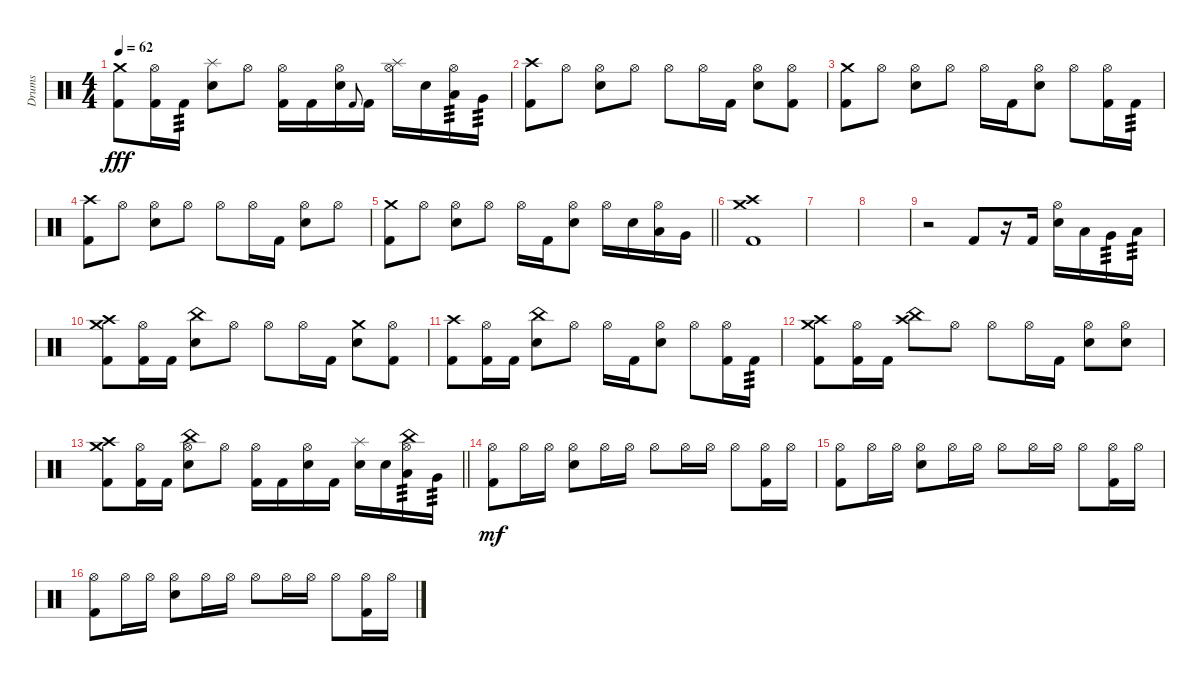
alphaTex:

\track ("Drums" "Drums") {instrument percussion}
\staff {score}
\articulation defaults
\ts (4 4)
\tempo 62
\clef neutral
\ks c
("Kick (hit) 2" "Crash medium (hit)").8{dy fff} ("Kick (hit) 2" "Hi-Hat (open)").16 "Kick (hit) 2".16{tp 3} ("Electric Snare (hit)" "Splash (hit)").8 "Hi-Hat (open)".8 ("Kick (hit) 2" "Hi-Hat (open)").16 "Kick (hit) 2".16 ("Electric Snare (hit)" "Hi-Hat (open)").16 "Kick (hit) 2".8{gr onbeat} "Kick (hit) 2".16 ("Hi-Hat (open)" "Splash (hit)").16 "Electric Snare (hit)".16 ("Low Tom (hit)" "Hi-Hat (open)").16{tp 3} "Very Low Tom (hit)".16{tp 3} |
("Kick (hit) 2" "Crash high (hit)").8 "Hi-Hat (open)".8 ("Electric Snare (hit)" "Hi-Hat (open)").8 "Hi-Hat (open)".8 "Hi-Hat (open)".8 "Hi-Hat (open)".16 "Kick (hit) 2".16 ("Electric Snare (hit)" "Hi-Hat (open)").8 ("Kick (hit) 2" "Hi-Hat (open)").8 |
("Kick (hit) 2" "Crash medium (hit)").8 "Hi-Hat (open)".8 ("Electric Snare (hit)" "Hi-Hat (open)").8 "Hi-Hat (open)".8 "Hi-Hat (open)".16 "Kick (hit) 2".16 ("Electric Snare (hit)" "Hi-Hat (open)").8 "Hi-Hat (open)".8 ("Kick (hit) 2" "Hi-Hat (open)").16 "Kick (hit) 2".16{tp 3} |
("Kick (hit) 2" "Crash high (hit)").8 "Hi-Hat (open)".8 ("Electric Snare (hit)" "Hi-Hat (open)").8 "Hi-Hat (open)".8 "Hi-Hat (open)".8 "Hi-Hat (open)".16 "Kick (hit) 2".16 ("Electric Snare (hit)" "Hi-Hat (open)").8 "Hi-Hat (open)".8 |
\barLineRight lightlight
("Kick (hit) 2" "Crash medium (hit)").8 "Hi-Hat (open)".8 ("Electric Snare (hit)" "Hi-Hat (open)").8 "Hi-Hat (open)".8 "Hi-Hat (open)".16 "Kick (hit) 2".16 ("Electric Snare (hit)" "Hi-Hat (open)").8 "Hi-Hat (open)".16 "Electric Snare (hit)".16 ("Low Tom (hit)" "Hi-Hat (open)").16 "Very Low Tom (hit)".16 |
("Kick (hit) 2" "Crash high (hit)" "Crash medium (hit)").1 |
|
|
r.2 "Kick (hit) 2".8 r.16 "Kick (hit) 2".16 ("Electric Snare (hit)" "Hi-Hat (open)").16 "Low Tom (hit)".16 "Very Low Tom (hit)".16{tp 3} "Low Floor Tom (hit)".16{tp 3} |
("Kick (hit) 2" "Crash high (hit)" "Crash medium (hit)").8 ("Kick (hit) 2" "Hi-Hat (open)").16 "Kick (hit) 2".16 ("Electric Snare (hit)" "China (hit)").8 "Hi-Hat (open)".8 "Hi-Hat (open)".8 "Hi-Hat (open)".16 "Kick (hit) 2".16 ("Electric Snare (hit)" "Crash medium (hit)").8 ("Kick (hit) 2" "Hi-Hat (open)").8 |
("Kick (hit) 2" "Crash high (hit)").8 ("Kick (hit) 2" "Hi-Hat (open)").16 "Kick (hit) 2".16 ("Electric Snare (hit)" "China (hit)").8 "Hi-Hat (open)".8 "Hi-Hat (open)".16 "Kick (hit) 2".16 ("Electric Snare (hit)" "Hi-Hat (open)").8 "Hi-Hat (open)".8 ("Kick (hit) 2" "Hi-Hat (open)").16 "Kick (hit) 2".16{tp 3} |
("Kick (hit) 2" "Crash high (hit)" "Crash medium (hit)").8 ("Kick (hit) 2" "Hi-Hat (open)").16 "Kick (hit) 2".16 ("Crash high (hit)" "China (hit)").8 "Hi-Hat (open)".8 "Hi-Hat (open)".8 "Hi-Hat (open)".16 "Kick (hit) 2".16 ("Electric Snare (hit)" "Hi-Hat (open)").8 ("Electric Snare (hit)" "Hi-Hat (open)").8 |
\barLineRight lightlight
("Kick (hit) 2" "Crash high (hit)" "Crash medium (hit)").8 ("Kick (hit) 2" "Hi-Hat (open)").16 "Kick (hit) 2".16 ("Electric Snare (hit)" "Hi-Hat (open)" "China (hit)").8 "Hi-Hat (open)".8 ("Kick (hit) 2" "Hi-Hat (open)").16 "Kick (hit) 2".16 ("Electric Snare (hit)" "Hi-Hat (open)").16 "Kick (hit) 2".16 ("Electric Snare (hit)" "Splash (hit)").16 "Electric Snare (hit)".16 ("Low Tom (hit)" "Hi-Hat (open)" "China (hit)").16{tp 3} "Very Low Tom (hit)".16{tp 3} |
("Kick (hit) 2" "Hi-Hat (open)").8{dy mf} "Hi-Hat (open)".16 "Hi-Hat (open)".16 ("Electric Snare (hit)" "Hi-Hat (open)").8 "Hi-Hat (open)".16 "Hi-Hat (open)".16 "Hi-Hat (open)".8 "Hi-Hat (open)".16 "Hi-Hat (open)".16 "Hi-Hat (open)".8 ("Kick (hit) 2" "Hi-Hat (open)").16 "Hi-Hat (open)".16 |
("Kick (hit) 2" "Hi-Hat (open)").8 "Hi-Hat (open)".16 "Hi-Hat (open)".16 ("Electric Snare (hit)" "Hi-Hat (open)").8 "Hi-Hat (open)".16 "Hi-Hat (open)".16 "Hi-Hat (open)".8 "Hi-Hat (open)".16 "Hi-Hat (open)".16 "Hi-Hat (open)".8 ("Kick (hit) 2" "Hi-Hat (open)").16 "Hi-Hat (open)".16 |
("Kick (hit) 2" "Hi-Hat (open)").8 "Hi-Hat (open)".16 "Hi-Hat (open)".16 ("Electric Snare (hit)" "Hi-Hat (open)").8 "Hi-Hat (open)".16 "Hi-Hat (open)".16 "Hi-Hat (open)".8 "Hi-Hat (open)".16 "Hi-Hat (open)".16 "Hi-Hat (open)".8 ("Kick (hit) 2" "Hi-Hat (open)").16 "Hi-Hat (open)".16
